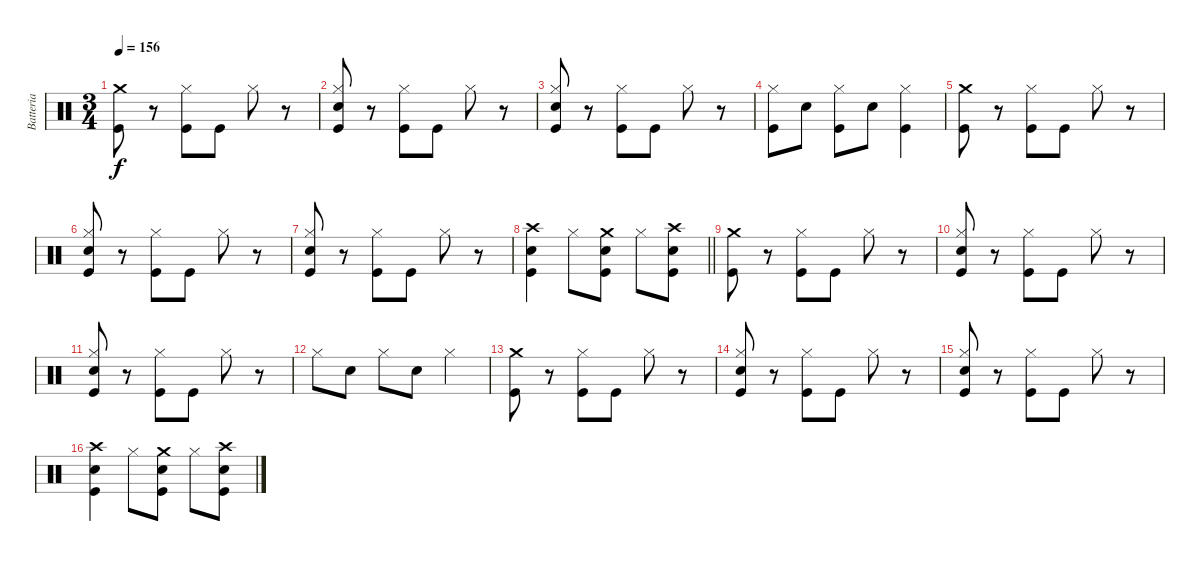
\track ("Batteria" "Batteria") {instrument percussion}
\staff {score}
\articulation defaults
\ts (3 4)
\tempo 156
\clef neutral
\ks c
("Crash medium (hit)" "Kick (hit)").8{dy f} r.8 ("Hi-Hat (closed)" "Kick (hit)").8 "Kick (hit)".8 "Hi-Hat (closed)".8 r.8 |
("Hi-Hat (closed)" "Electric Snare (hit)" "Kick (hit)").8 r.8 ("Hi-Hat (closed)" "Kick (hit)").8 "Kick (hit)".8 "Hi-Hat (closed)".8 r.8 |
("Hi-Hat (closed)" "Electric Snare (hit)" "Kick (hit)").8 r.8 ("Hi-Hat (closed)" "Kick (hit)").8 "Kick (hit)".8 "Hi-Hat (closed)".8 r.8 |
("Hi-Hat (closed)" "Kick (hit)").8 "Electric Snare (hit)".8 ("Hi-Hat (closed)" "Kick (hit)").8 "Electric Snare (hit)".8 ("Hi-Hat (closed)" "Kick (hit)").4 |
("Crash medium (hit)" "Kick (hit)").8 r.8 ("Hi-Hat (closed)" "Kick (hit)").8 "Kick (hit)".8 "Hi-Hat (closed)".8 r.8 |
("Hi-Hat (closed)" "Electric Snare (hit)" "Kick (hit)").8 r.8 ("Hi-Hat (closed)" "Kick (hit)").8 "Kick (hit)".8 "Hi-Hat (closed)".8 r.8 |
("Hi-Hat (closed)" "Electric Snare (hit)" "Kick (hit)").8 r.8 ("Hi-Hat (closed)" "Kick (hit)").8 "Kick (hit)".8 "Hi-Hat (closed)".8 r.8 |
\barLineRight lightlight
("Crash high (hit)" "Electric Snare (hit)" "Kick (hit)").4 "Hi-Hat (closed)".8 ("Crash medium (hit)" "Electric Snare (hit)" "Kick (hit)").8 "Hi-Hat (closed)".8 ("Crash high (hit)" "Electric Snare (hit)" "Kick (hit)").8 |
("Crash medium (hit)" "Kick (hit)").8 r.8 ("Hi-Hat (closed)" "Kick (hit)").8 "Kick (hit)".8 "Hi-Hat (closed)".8 r.8 |
("Hi-Hat (closed)" "Electric Snare (hit)" "Kick (hit)").8 r.8 ("Hi-Hat (closed)" "Kick (hit)").8 "Kick (hit)".8 "Hi-Hat (closed)".8 r.8 |
("Hi-Hat (closed)" "Electric Snare (hit)" "Kick (hit)").8 r.8 ("Hi-Hat (closed)" "Kick (hit)").8 "Kick (hit)".8 "Hi-Hat (closed)".8 r.8 |
"Hi-Hat (closed)".8 "Electric Snare (hit)".8 "Hi-Hat (closed)".8 "Electric Snare (hit)".8 "Hi-Hat (closed)".4 |
("Crash medium (hit)" "Kick (hit)").8 r.8 ("Hi-Hat (closed)" "Kick (hit)").8 "Kick (hit)".8 "Hi-Hat (closed)".8 r.8 |
("Hi-Hat (closed)" "Electric Snare (hit)" "Kick (hit)").8 r.8 ("Hi-Hat (closed)" "Kick (hit)").8 "Kick (hit)".8 "Hi-Hat (closed)".8 r.8 |
("Hi-Hat (closed)" "Electric Snare (hit)" "Kick (hit)").8 r.8 ("Hi-Hat (closed)" "Kick (hit)").8 "Kick (hit)".8 "Hi-Hat (closed)".8 r.8 |
("Crash high (hit)" "Electric Snare (hit)" "Kick (hit)").4 "Hi-Hat (closed)".8 ("Crash medium (hit)" "Electric Snare (hit)" "Kick (hit)").8 "Hi-Hat (closed)".8 ("Crash high (hit)" "Electric Snare (hit)" "Kick (hit)").8
